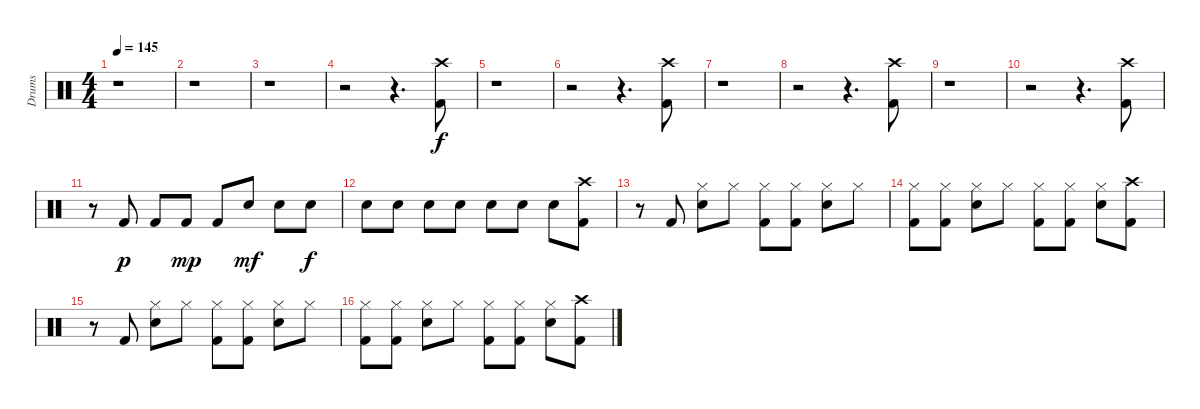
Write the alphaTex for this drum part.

\track ("Drums" "Drums") {instrument percussion}
\staff {score}
\articulation defaults
\ts (4 4)
\tempo 145
\clef neutral
\ks c
r.1{dy f} |
r.1 |
r.1 |
r.2 r.4{d} ("Crash high (hit)" "Kick (hit) 2").8 |
r.1 |
r.2 r.4{d} ("Crash high (hit)" "Kick (hit) 2").8 |
r.1 |
r.2 r.4{d} ("Crash high (hit)" "Kick (hit) 2").8 |
r.1 |
r.2 r.4{d} ("Crash high (hit)" "Kick (hit) 2").8 |
r.8 "Kick (hit) 2".8{dy p} "Kick (hit) 2".8 "Kick (hit) 2".8{dy mp} "Kick (hit) 2".8 "Snare (hit) 2".8{dy mf} "Snare (hit) 2".8 "Snare (hit) 2".8{dy f} |
"Snare (hit) 2".8 "Snare (hit) 2".8 "Snare (hit) 2".8 "Snare (hit) 2".8 "Snare (hit) 2".8 "Snare (hit) 2".8 "Snare (hit) 2".8 ("Crash high (hit)" "Kick (hit) 2").8 |
r.8 "Kick (hit) 2".8 ("Hi-Hat (closed)" "Snare (hit) 2").8 "Hi-Hat (closed)".8 ("Hi-Hat (closed)" "Kick (hit) 2").8 ("Hi-Hat (closed)" "Kick (hit) 2").8 ("Hi-Hat (closed)" "Snare (hit) 2").8 "Hi-Hat (closed)".8 |
("Hi-Hat (closed)" "Kick (hit) 2").8 ("Hi-Hat (closed)" "Kick (hit) 2").8 ("Hi-Hat (closed)" "Snare (hit) 2").8 "Hi-Hat (closed)".8 ("Hi-Hat (closed)" "Kick (hit) 2").8 ("Hi-Hat (closed)" "Kick (hit) 2").8 ("Hi-Hat (closed)" "Snare (hit) 2").8 ("Crash high (hit)" "Kick (hit) 2").8 |
r.8 "Kick (hit) 2".8 ("Hi-Hat (closed)" "Snare (hit) 2").8 "Hi-Hat (closed)".8 ("Hi-Hat (closed)" "Kick (hit) 2").8 ("Hi-Hat (closed)" "Kick (hit) 2").8 ("Hi-Hat (closed)" "Snare (hit) 2").8 "Hi-Hat (closed)".8 |
("Hi-Hat (closed)" "Kick (hit) 2").8 ("Hi-Hat (closed)" "Kick (hit) 2").8 ("Hi-Hat (closed)" "Snare (hit) 2").8 "Hi-Hat (closed)".8 ("Hi-Hat (closed)" "Kick (hit) 2").8 ("Hi-Hat (closed)" "Kick (hit) 2").8 ("Hi-Hat (closed)" "Snare (hit) 2").8 ("Crash high (hit)" "Kick (hit) 2").8
